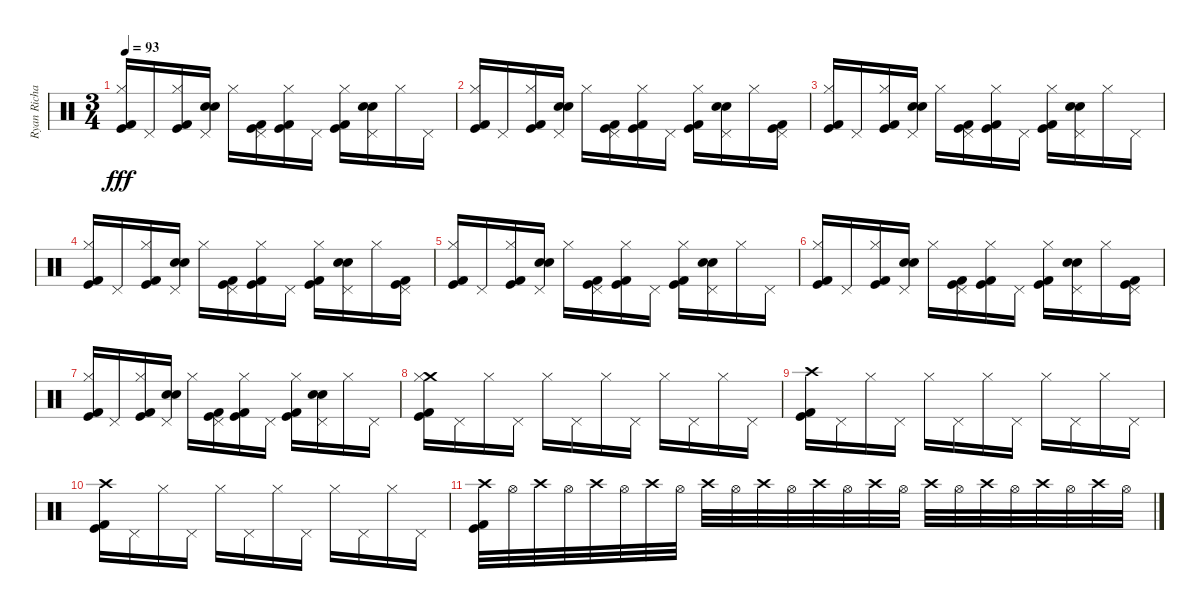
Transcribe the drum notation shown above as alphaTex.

\track ("Ryan Richards" "Ryan Richa") {instrument percussion}
\staff {score}
\articulation defaults
\ts (3 4)
\tempo 93
\clef neutral
\ks c
("Kick (hit)" "Hi-Hat (closed)" "Kick (hit) 2").16{dy fff} "Pedal Hi-Hat (hit)".16 ("Kick (hit)" "Hi-Hat (closed)" "Kick (hit) 2").16 ("Snare (hit) 2" "Pedal Hi-Hat (hit)" "Electric Snare (hit)").16 "Hi-Hat (closed)".16 ("Kick (hit)" "Pedal Hi-Hat (hit)" "Kick (hit) 2").16 ("Kick (hit)" "Hi-Hat (closed)" "Kick (hit) 2").16 "Pedal Hi-Hat (hit)".16 ("Kick (hit)" "Hi-Hat (closed)" "Kick (hit) 2").16 ("Snare (hit) 2" "Pedal Hi-Hat (hit)" "Electric Snare (hit)").16 "Hi-Hat (closed)".16 "Pedal Hi-Hat (hit)".16 |
("Kick (hit)" "Hi-Hat (closed)" "Kick (hit) 2").16 "Pedal Hi-Hat (hit)".16 ("Kick (hit)" "Hi-Hat (closed)" "Kick (hit) 2").16 ("Snare (hit) 2" "Pedal Hi-Hat (hit)" "Electric Snare (hit)").16 "Hi-Hat (closed)".16 ("Kick (hit)" "Pedal Hi-Hat (hit)" "Kick (hit) 2").16 ("Kick (hit)" "Hi-Hat (closed)" "Kick (hit) 2").16 "Pedal Hi-Hat (hit)".16 ("Kick (hit)" "Hi-Hat (closed)" "Kick (hit) 2").16 ("Snare (hit) 2" "Pedal Hi-Hat (hit)" "Electric Snare (hit)").16 "Hi-Hat (closed)".16 ("Kick (hit)" "Pedal Hi-Hat (hit)" "Kick (hit) 2").16 |
("Kick (hit)" "Hi-Hat (closed)" "Kick (hit) 2").16 "Pedal Hi-Hat (hit)".16 ("Kick (hit)" "Hi-Hat (closed)" "Kick (hit) 2").16 ("Snare (hit) 2" "Pedal Hi-Hat (hit)" "Electric Snare (hit)").16 "Hi-Hat (closed)".16 ("Kick (hit)" "Pedal Hi-Hat (hit)" "Kick (hit) 2").16 ("Kick (hit)" "Hi-Hat (closed)" "Kick (hit) 2").16 "Pedal Hi-Hat (hit)".16 ("Kick (hit)" "Hi-Hat (closed)" "Kick (hit) 2").16 ("Snare (hit) 2" "Pedal Hi-Hat (hit)" "Electric Snare (hit)").16 "Hi-Hat (closed)".16 "Pedal Hi-Hat (hit)".16 |
("Kick (hit)" "Hi-Hat (closed)" "Kick (hit) 2").16 "Pedal Hi-Hat (hit)".16 ("Kick (hit)" "Hi-Hat (closed)" "Kick (hit) 2").16 ("Snare (hit) 2" "Pedal Hi-Hat (hit)" "Electric Snare (hit)").16 "Hi-Hat (closed)".16 ("Kick (hit)" "Pedal Hi-Hat (hit)" "Kick (hit) 2").16 ("Kick (hit)" "Hi-Hat (closed)" "Kick (hit) 2").16 "Pedal Hi-Hat (hit)".16 ("Kick (hit)" "Hi-Hat (closed)" "Kick (hit) 2").16 ("Snare (hit) 2" "Pedal Hi-Hat (hit)" "Electric Snare (hit)").16 "Hi-Hat (closed)".16 ("Kick (hit)" "Pedal Hi-Hat (hit)" "Kick (hit) 2").16 |
("Kick (hit)" "Hi-Hat (closed)" "Kick (hit) 2").16 "Pedal Hi-Hat (hit)".16 ("Kick (hit)" "Hi-Hat (closed)" "Kick (hit) 2").16 ("Snare (hit) 2" "Pedal Hi-Hat (hit)" "Electric Snare (hit)").16 "Hi-Hat (closed)".16 ("Kick (hit)" "Pedal Hi-Hat (hit)" "Kick (hit) 2").16 ("Kick (hit)" "Hi-Hat (closed)" "Kick (hit) 2").16 "Pedal Hi-Hat (hit)".16 ("Kick (hit)" "Hi-Hat (closed)" "Kick (hit) 2").16 ("Snare (hit) 2" "Pedal Hi-Hat (hit)" "Electric Snare (hit)").16 "Hi-Hat (closed)".16 "Pedal Hi-Hat (hit)".16 |
("Kick (hit)" "Hi-Hat (closed)" "Kick (hit) 2").16 "Pedal Hi-Hat (hit)".16 ("Kick (hit)" "Hi-Hat (closed)" "Kick (hit) 2").16 ("Snare (hit) 2" "Pedal Hi-Hat (hit)" "Electric Snare (hit)").16 "Hi-Hat (closed)".16 ("Kick (hit)" "Pedal Hi-Hat (hit)" "Kick (hit) 2").16 ("Kick (hit)" "Hi-Hat (closed)" "Kick (hit) 2").16 "Pedal Hi-Hat (hit)".16 ("Kick (hit)" "Hi-Hat (closed)" "Kick (hit) 2").16 ("Snare (hit) 2" "Pedal Hi-Hat (hit)" "Electric Snare (hit)").16 "Hi-Hat (closed)".16 ("Kick (hit)" "Pedal Hi-Hat (hit)" "Kick (hit) 2").16 |
("Kick (hit)" "Hi-Hat (closed)" "Kick (hit) 2").16 "Pedal Hi-Hat (hit)".16 ("Kick (hit)" "Hi-Hat (closed)" "Kick (hit) 2").16 ("Snare (hit) 2" "Pedal Hi-Hat (hit)" "Electric Snare (hit)").16 "Hi-Hat (closed)".16 ("Kick (hit)" "Pedal Hi-Hat (hit)" "Kick (hit) 2").16 ("Kick (hit)" "Hi-Hat (closed)" "Kick (hit) 2").16 "Pedal Hi-Hat (hit)".16 ("Kick (hit)" "Hi-Hat (closed)" "Kick (hit) 2").16 ("Snare (hit) 2" "Pedal Hi-Hat (hit)" "Electric Snare (hit)").16 "Hi-Hat (closed)".16 "Pedal Hi-Hat (hit)".16 |
("Kick (hit)" "Crash medium (hit)" "Hi-Hat (closed)" "Kick (hit) 2").16 "Pedal Hi-Hat (hit)".16 "Hi-Hat (closed)".16 "Pedal Hi-Hat (hit)".16 "Hi-Hat (closed)".16 "Pedal Hi-Hat (hit)".16 "Hi-Hat (closed)".16 "Pedal Hi-Hat (hit)".16 "Hi-Hat (closed)".16 "Pedal Hi-Hat (hit)".16 "Hi-Hat (closed)".16 "Pedal Hi-Hat (hit)".16 |
("Kick (hit)" "Crash high (hit)" "Kick (hit) 2").16 "Pedal Hi-Hat (hit)".16 "Hi-Hat (closed)".16 "Pedal Hi-Hat (hit)".16 "Hi-Hat (closed)".16 "Pedal Hi-Hat (hit)".16 "Hi-Hat (closed)".16 "Pedal Hi-Hat (hit)".16 "Hi-Hat (closed)".16 "Pedal Hi-Hat (hit)".16 "Hi-Hat (closed)".16 "Pedal Hi-Hat (hit)".16 |
("Kick (hit)" "Crash high (hit)" "Kick (hit) 2").16 "Pedal Hi-Hat (hit)".16 "Hi-Hat (closed)".16 "Pedal Hi-Hat (hit)".16 "Hi-Hat (closed)".16 "Pedal Hi-Hat (hit)".16 "Hi-Hat (closed)".16 "Pedal Hi-Hat (hit)".16 "Hi-Hat (closed)".16 "Pedal Hi-Hat (hit)".16 "Hi-Hat (closed)".16 "Pedal Hi-Hat (hit)".16 |
("Kick (hit)" "Crash high (hit)" "Kick (hit) 2").32 "Hi-Hat (open)".32 "Crash high (hit)".32 "Hi-Hat (open)".32 "Crash high (hit)".32 "Hi-Hat (open)".32 "Crash high (hit)".32 "Hi-Hat (open)".32 "Crash high (hit)".32 "Hi-Hat (open)".32 "Crash high (hit)".32 "Hi-Hat (open)".32 "Crash high (hit)".32 "Hi-Hat (open)".32 "Crash high (hit)".32 "Hi-Hat (open)".32 "Crash high (hit)".32 "Hi-Hat (open)".32 "Crash high (hit)".32 "Hi-Hat (open)".32 "Crash high (hit)".32 "Hi-Hat (open)".32 "Crash high (hit)".32 "Hi-Hat (open)".32
